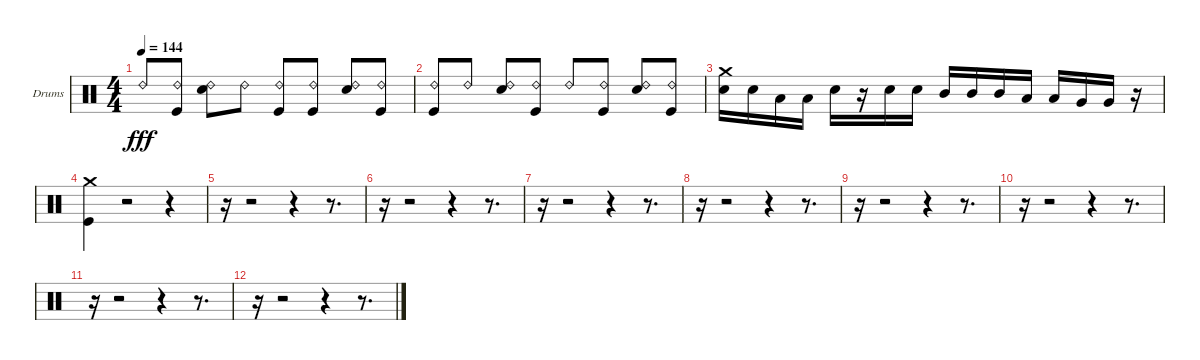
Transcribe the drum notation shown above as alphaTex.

\bracketExtendMode groupsimilarinstruments
\firstSystemTrackNameOrientation horizontal
\otherSystemsTrackNameOrientation horizontal
\track ("Drumkit" "Drums") {instrument percussion}
\staff {score}
\articulation defaults
\ts (4 4)
\tempo 144
\clef neutral
\ks c "Ride (bell) 2".8{dy fff}
("Ride (bell) 2" "Kick (hit)").8 ("Ride (bell) 2" "Snare (hit) 2").8 "Ride (bell) 2".8 ("Ride (bell) 2" "Kick (hit)").8 ("Ride (bell) 2" "Kick (hit)").8 ("Ride (bell) 2" "Snare (hit) 2").8 ("Ride (bell) 2" "Kick (hit)").8 |
("Kick (hit)" "Ride (bell) 2").8 "Ride (bell) 2".8 ("Snare (hit) 2" "Ride (bell) 2").8 ("Kick (hit)" "Ride (bell) 2").8 "Ride (bell) 2".8 ("Kick (hit)" "Ride (bell) 2").8 ("Snare (hit) 2" "Ride (bell) 2").8 ("Kick (hit)" "Ride (bell) 2").8 |
("Snare (hit) 2" "Crash medium (hit)").16 "Snare (hit) 2".16 "Low Tom (hit)".16 "Low Tom (hit)".16 "Snare (hit) 2".16 r.16 "Snare (hit) 2".16 "Snare (hit) 2".16 "Mid Tom (hit)".16 "Mid Tom (hit)".16 "Mid Tom (hit)".16 "Low Tom (hit)".16 "Low Tom (hit)".16 "Very Low Tom (hit)".16 "Very Low Tom (hit)".16 r.16 |
("Kick (hit)" "Crash medium (hit)").4 r.2 r.4 |
r.16 r.2 r.4 r.8{d} |
r.16 r.2 r.4 r.8{d} |
r.16 r.2 r.4 r.8{d} |
r.16 r.2 r.4 r.8{d} |
r.16 r.2 r.4 r.8{d} |
r.16 r.2 r.4 r.8{d} |
r.16 r.2 r.4 r.8{d} |
r.16 r.2 r.4 r.8{d}
